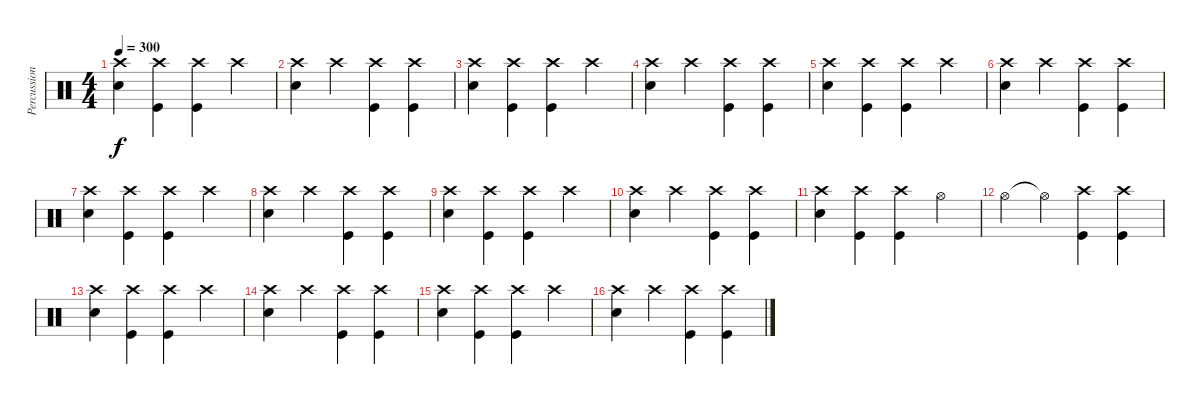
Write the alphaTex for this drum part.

\track ("Percussion" "Percussion") {instrument percussion}
\staff {score}
\articulation defaults
\ts (4 4)
\tempo 300
\clef neutral
\ks c
("Electric Snare (hit)" "Crash high (hit)").4{dy f} ("Kick (hit)" "Crash high (hit)").4 ("Kick (hit)" "Crash high (hit)").4 "Crash high (hit)".4 |
("Electric Snare (hit)" "Crash high (hit)").4 "Crash high (hit)".4 ("Kick (hit)" "Crash high (hit)").4 ("Kick (hit)" "Crash high (hit)").4 |
("Electric Snare (hit)" "Crash high (hit)").4 ("Kick (hit)" "Crash high (hit)").4 ("Kick (hit)" "Crash high (hit)").4 "Crash high (hit)".4 |
("Electric Snare (hit)" "Crash high (hit)").4 "Crash high (hit)".4 ("Kick (hit)" "Crash high (hit)").4 ("Kick (hit)" "Crash high (hit)").4 |
("Electric Snare (hit)" "Crash high (hit)").4 ("Kick (hit)" "Crash high (hit)").4 ("Kick (hit)" "Crash high (hit)").4 "Crash high (hit)".4 |
("Electric Snare (hit)" "Crash high (hit)").4 "Crash high (hit)".4 ("Kick (hit)" "Crash high (hit)").4 ("Kick (hit)" "Crash high (hit)").4 |
("Electric Snare (hit)" "Crash high (hit)").4 ("Kick (hit)" "Crash high (hit)").4 ("Kick (hit)" "Crash high (hit)").4 "Crash high (hit)".4 |
("Electric Snare (hit)" "Crash high (hit)").4 "Crash high (hit)".4 ("Kick (hit)" "Crash high (hit)").4 ("Kick (hit)" "Crash high (hit)").4 |
("Electric Snare (hit)" "Crash high (hit)").4 ("Kick (hit)" "Crash high (hit)").4 ("Kick (hit)" "Crash high (hit)").4 "Crash high (hit)".4 |
("Electric Snare (hit)" "Crash high (hit)").4 "Crash high (hit)".4 ("Kick (hit)" "Crash high (hit)").4 ("Kick (hit)" "Crash high (hit)").4 |
("Electric Snare (hit)" "Crash high (hit)").4 ("Kick (hit)" "Crash high (hit)").4 ("Kick (hit)" "Crash high (hit)").4 "Hi-Hat (open)".4 |
"Hi-Hat (open)".4 "Hi-Hat (open)"{t}.4 ("Kick (hit)" "Crash high (hit)").4 ("Kick (hit)" "Crash high (hit)").4 |
("Electric Snare (hit)" "Crash high (hit)").4 ("Kick (hit)" "Crash high (hit)").4 ("Kick (hit)" "Crash high (hit)").4 "Crash high (hit)".4 |
("Electric Snare (hit)" "Crash high (hit)").4 "Crash high (hit)".4 ("Kick (hit)" "Crash high (hit)").4 ("Kick (hit)" "Crash high (hit)").4 |
("Electric Snare (hit)" "Crash high (hit)").4 ("Kick (hit)" "Crash high (hit)").4 ("Kick (hit)" "Crash high (hit)").4 "Crash high (hit)".4 |
("Electric Snare (hit)" "Crash high (hit)").4 "Crash high (hit)".4 ("Kick (hit)" "Crash high (hit)").4 ("Kick (hit)" "Crash high (hit)").4
